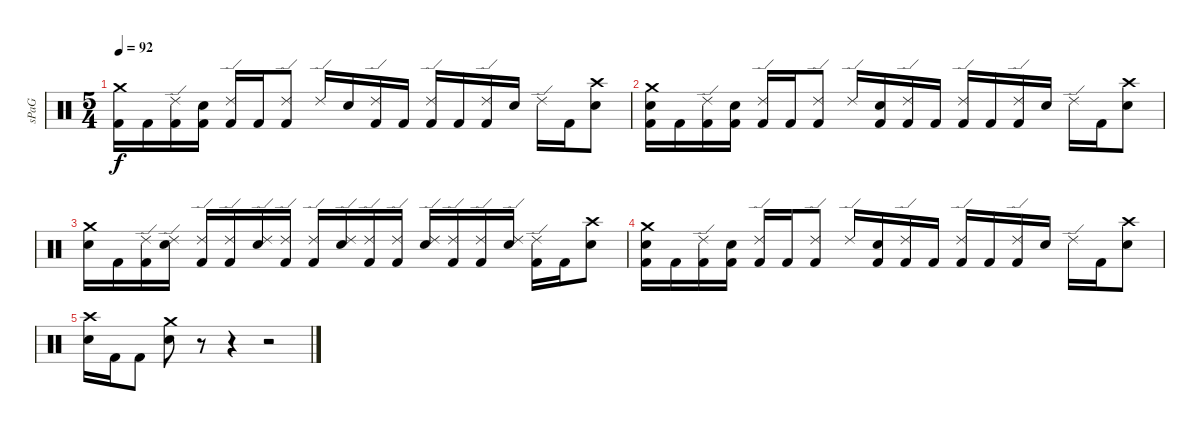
\track ("sPaG" "sPaG") {instrument percussion}
\staff {score}
\articulation defaults
\ts (5 4)
\tempo 92
\clef neutral
\ks c
("Crash medium (hit)" "Kick (hit) 2").16{dy f} "Kick (hit) 2".16 ("Ride (edge) 2" "Kick (hit) 2").16 ("Snare (hit) 2" "Kick (hit) 2").16 ("Ride (edge) 2" "Kick (hit) 2").16 "Kick (hit) 2".16 ("Ride (edge) 2" "Kick (hit) 2").8 "Ride (edge) 2".16 "Snare (hit) 2".16 ("Ride (edge) 2" "Kick (hit) 2").16 "Kick (hit) 2".16 ("Ride (edge) 2" "Kick (hit) 2").16 "Kick (hit) 2".16 ("Ride (edge) 2" "Kick (hit) 2").16 "Snare (hit) 2".16 "Ride (edge) 2".16 "Kick (hit) 2".16 ("Crash high (hit)" "Snare (hit) 2").8 |
("Crash medium (hit)" "Snare (hit) 2" "Kick (hit) 2").16 "Kick (hit) 2".16 ("Ride (edge) 2" "Kick (hit) 2").16 ("Snare (hit) 2" "Kick (hit) 2").16 ("Ride (edge) 2" "Kick (hit) 2").16 "Kick (hit) 2".16 ("Ride (edge) 2" "Kick (hit) 2").8 "Ride (edge) 2".16 ("Snare (hit) 2" "Kick (hit) 2").16 ("Ride (edge) 2" "Kick (hit) 2").16 "Kick (hit) 2".16 ("Ride (edge) 2" "Kick (hit) 2").16 "Kick (hit) 2".16 ("Ride (edge) 2" "Kick (hit) 2").16 "Snare (hit) 2".16 "Ride (edge) 2".16 "Kick (hit) 2".16 ("Crash high (hit)" "Snare (hit) 2").8 |
("Crash medium (hit)" "Snare (hit) 2").16 "Kick (hit) 2".16 ("Ride (edge) 2" "Kick (hit) 2").16 ("Ride (edge) 2" "Snare (hit) 2").16 ("Ride (edge) 2" "Kick (hit) 2").16 ("Ride (edge) 2" "Kick (hit) 2").16 ("Ride (edge) 2" "Snare (hit) 2").16 ("Ride (edge) 2" "Kick (hit) 2").16 ("Ride (edge) 2" "Kick (hit) 2").16 ("Ride (edge) 2" "Snare (hit) 2").16 ("Ride (edge) 2" "Kick (hit) 2").16 ("Ride (edge) 2" "Kick (hit) 2").16 ("Ride (edge) 2" "Snare (hit) 2").16 ("Ride (edge) 2" "Kick (hit) 2").16 ("Ride (edge) 2" "Kick (hit) 2").16 ("Ride (edge) 2" "Snare (hit) 2").16 ("Ride (edge) 2" "Kick (hit) 2").16 "Kick (hit) 2".16 ("Crash high (hit)" "Snare (hit) 2").8 |
("Crash medium (hit)" "Snare (hit) 2" "Kick (hit) 2").16 "Kick (hit) 2".16 ("Ride (edge) 2" "Kick (hit) 2").16 ("Snare (hit) 2" "Kick (hit) 2").16 ("Ride (edge) 2" "Kick (hit) 2").16 "Kick (hit) 2".16 ("Ride (edge) 2" "Kick (hit) 2").8 "Ride (edge) 2".16 ("Snare (hit) 2" "Kick (hit) 2").16 ("Ride (edge) 2" "Kick (hit) 2").16 "Kick (hit) 2".16 ("Ride (edge) 2" "Kick (hit) 2").16 "Kick (hit) 2".16 ("Ride (edge) 2" "Kick (hit) 2").16 "Snare (hit) 2".16 "Ride (edge) 2".16 "Kick (hit) 2".16 ("Crash high (hit)" "Snare (hit) 2").8 |
("Crash high (hit)" "Snare (hit) 2").16 "Kick (hit) 2".16 "Kick (hit) 2".8 ("Crash medium (hit)" "Snare (hit) 2").8 r.8 r.4 r.2
